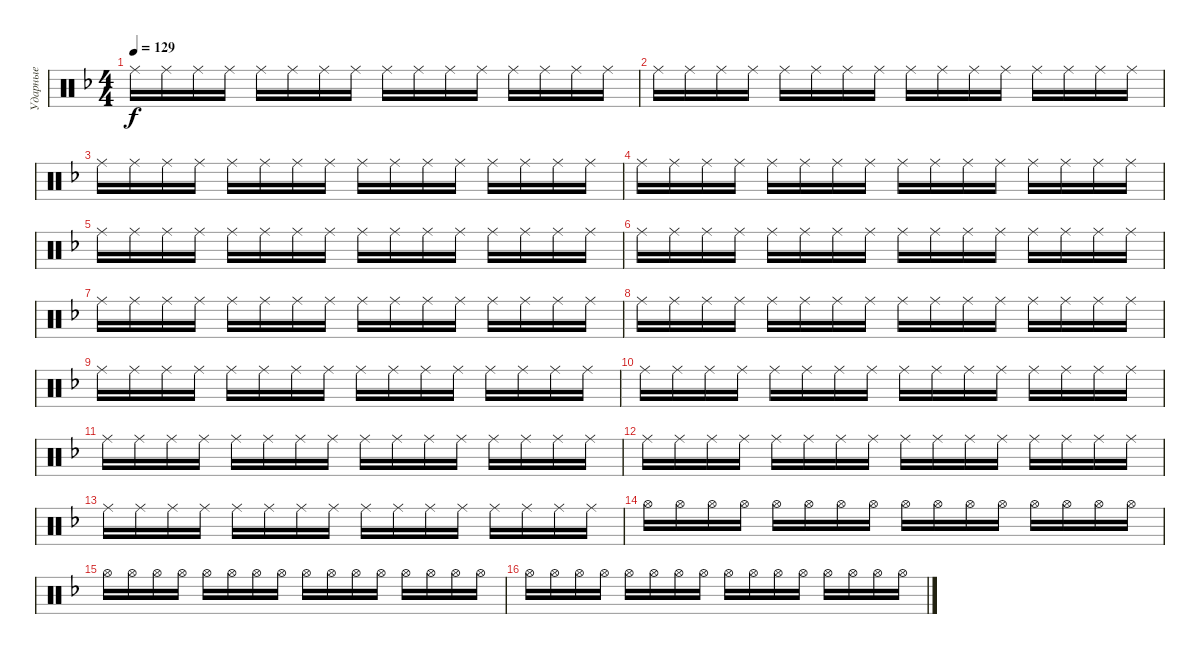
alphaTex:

\track ("Ударные" "Ударные") {instrument percussion}
\staff {score}
\articulation defaults
\ts (4 4)
\tempo 129
\clef neutral
\ks dminor "Ride (middle)".16{dy f} "Ride (middle)".16 "Ride (middle)".16 "Ride (middle)".16 "Ride (middle)".16 "Ride (middle)".16 "Ride (middle)".16 "Ride (middle)".16 "Ride (middle)".16 "Ride (middle)".16 "Ride (middle)".16 "Ride (middle)".16 "Ride (middle)".16 "Ride (middle)".16 "Ride (middle)".16 "Ride (middle)".16
|
"Ride (middle)".16 "Ride (middle)".16 "Ride (middle)".16 "Ride (middle)".16 "Ride (middle)".16 "Ride (middle)".16 "Ride (middle)".16 "Ride (middle)".16 "Ride (middle)".16 "Ride (middle)".16 "Ride (middle)".16 "Ride (middle)".16 "Ride (middle)".16 "Ride (middle)".16 "Ride (middle)".16 "Ride (middle)".16 |
"Ride (middle)".16 "Ride (middle)".16 "Ride (middle)".16 "Ride (middle)".16 "Ride (middle)".16 "Ride (middle)".16 "Ride (middle)".16 "Ride (middle)".16 "Ride (middle)".16 "Ride (middle)".16 "Ride (middle)".16 "Ride (middle)".16 "Ride (middle)".16 "Ride (middle)".16 "Ride (middle)".16 "Ride (middle)".16 |
"Ride (middle)".16 "Ride (middle)".16 "Ride (middle)".16 "Ride (middle)".16 "Ride (middle)".16 "Ride (middle)".16 "Ride (middle)".16 "Ride (middle)".16 "Ride (middle)".16 "Ride (middle)".16 "Ride (middle)".16 "Ride (middle)".16 "Ride (middle)".16 "Ride (middle)".16 "Ride (middle)".16 "Ride (middle)".16 |
"Ride (middle)".16 "Ride (middle)".16 "Ride (middle)".16 "Ride (middle)".16 "Ride (middle)".16 "Ride (middle)".16 "Ride (middle)".16 "Ride (middle)".16 "Ride (middle)".16 "Ride (middle)".16 "Ride (middle)".16 "Ride (middle)".16 "Ride (middle)".16 "Ride (middle)".16 "Ride (middle)".16 "Ride (middle)".16 |
"Ride (middle)".16 "Ride (middle)".16 "Ride (middle)".16 "Ride (middle)".16 "Ride (middle)".16 "Ride (middle)".16 "Ride (middle)".16 "Ride (middle)".16 "Ride (middle)".16 "Ride (middle)".16 "Ride (middle)".16 "Ride (middle)".16 "Ride (middle)".16 "Ride (middle)".16 "Ride (middle)".16 "Ride (middle)".16 |
"Ride (middle)".16 "Ride (middle)".16 "Ride (middle)".16 "Ride (middle)".16 "Ride (middle)".16 "Ride (middle)".16 "Ride (middle)".16 "Ride (middle)".16 "Ride (middle)".16 "Ride (middle)".16 "Ride (middle)".16 "Ride (middle)".16 "Ride (middle)".16 "Ride (middle)".16 "Ride (middle)".16 "Ride (middle)".16 |
"Ride (middle)".16 "Ride (middle)".16 "Ride (middle)".16 "Ride (middle)".16 "Ride (middle)".16 "Ride (middle)".16 "Ride (middle)".16 "Ride (middle)".16 "Ride (middle)".16 "Ride (middle)".16 "Ride (middle)".16 "Ride (middle)".16 "Ride (middle)".16 "Ride (middle)".16 "Ride (middle)".16 "Ride (middle)".16 |
"Ride (middle)".16 "Ride (middle)".16 "Ride (middle)".16 "Ride (middle)".16 "Ride (middle)".16 "Ride (middle)".16 "Ride (middle)".16 "Ride (middle)".16 "Ride (middle)".16 "Ride (middle)".16 "Ride (middle)".16 "Ride (middle)".16 "Ride (middle)".16 "Ride (middle)".16 "Ride (middle)".16 "Ride (middle)".16 |
"Ride (middle)".16 "Ride (middle)".16 "Ride (middle)".16 "Ride (middle)".16 "Ride (middle)".16 "Ride (middle)".16 "Ride (middle)".16 "Ride (middle)".16 "Ride (middle)".16 "Ride (middle)".16 "Ride (middle)".16 "Ride (middle)".16 "Ride (middle)".16 "Ride (middle)".16 "Ride (middle)".16 "Ride (middle)".16 |
"Ride (middle)".16 "Ride (middle)".16 "Ride (middle)".16 "Ride (middle)".16 "Ride (middle)".16 "Ride (middle)".16 "Ride (middle)".16 "Ride (middle)".16 "Ride (middle)".16 "Ride (middle)".16 "Ride (middle)".16 "Ride (middle)".16 "Ride (middle)".16 "Ride (middle)".16 "Ride (middle)".16 "Ride (middle)".16 |
"Ride (middle)".16 "Ride (middle)".16 "Ride (middle)".16 "Ride (middle)".16 "Ride (middle)".16 "Ride (middle)".16 "Ride (middle)".16 "Ride (middle)".16 "Ride (middle)".16 "Ride (middle)".16 "Ride (middle)".16 "Ride (middle)".16 "Ride (middle)".16 "Ride (middle)".16 "Ride (middle)".16 "Ride (middle)".16 |
"Ride (middle)".16 "Ride (middle)".16 "Ride (middle)".16 "Ride (middle)".16 "Ride (middle)".16 "Ride (middle)".16 "Ride (middle)".16 "Ride (middle)".16 "Ride (middle)".16 "Ride (middle)".16 "Ride (middle)".16 "Ride (middle)".16 "Ride (middle)".16 "Ride (middle)".16 "Ride (middle)".16 "Ride (middle)".16 |
"Hi-Hat (open)".16 "Hi-Hat (open)".16 "Hi-Hat (open)".16 "Hi-Hat (open)".16 "Hi-Hat (open)".16 "Hi-Hat (open)".16 "Hi-Hat (open)".16 "Hi-Hat (open)".16 "Hi-Hat (open)".16 "Hi-Hat (open)".16 "Hi-Hat (open)".16 "Hi-Hat (open)".16 "Hi-Hat (open)".16 "Hi-Hat (open)".16 "Hi-Hat (open)".16 "Hi-Hat (open)".16 |
"Hi-Hat (open)".16 "Hi-Hat (open)".16 "Hi-Hat (open)".16 "Hi-Hat (open)".16 "Hi-Hat (open)".16 "Hi-Hat (open)".16 "Hi-Hat (open)".16 "Hi-Hat (open)".16 "Hi-Hat (open)".16 "Hi-Hat (open)".16 "Hi-Hat (open)".16 "Hi-Hat (open)".16 "Hi-Hat (open)".16 "Hi-Hat (open)".16 "Hi-Hat (open)".16 "Hi-Hat (open)".16 |
"Hi-Hat (open)".16 "Hi-Hat (open)".16 "Hi-Hat (open)".16 "Hi-Hat (open)".16 "Hi-Hat (open)".16 "Hi-Hat (open)".16 "Hi-Hat (open)".16 "Hi-Hat (open)".16 "Hi-Hat (open)".16 "Hi-Hat (open)".16 "Hi-Hat (open)".16 "Hi-Hat (open)".16 "Hi-Hat (open)".16 "Hi-Hat (open)".16 "Hi-Hat (open)".16 "Hi-Hat (open)".16
